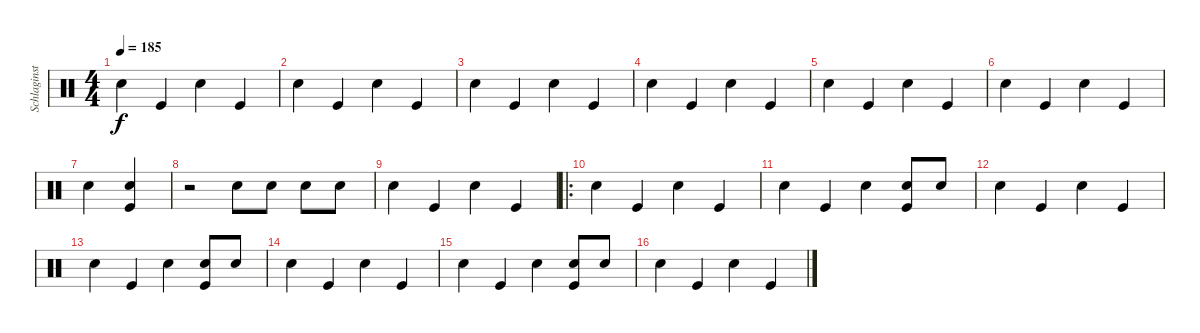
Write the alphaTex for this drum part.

\track ("Schlaginstrumente - Auswahl" "Schlaginst") {instrument percussion}
\staff {score}
\articulation defaults
\ts (4 4)
\tempo 185
\clef neutral
\ks c "Snare (hit) 2".4{dy f} "Kick (hit)".4 "Snare (hit) 2".4 "Kick (hit)".4
|
"Snare (hit) 2".4 "Kick (hit)".4 "Snare (hit) 2".4 "Kick (hit)".4 |
"Snare (hit) 2".4 "Kick (hit)".4 "Snare (hit) 2".4 "Kick (hit)".4 |
"Snare (hit) 2".4 "Kick (hit)".4 "Snare (hit) 2".4 "Kick (hit)".4 |
"Snare (hit) 2".4 "Kick (hit)".4 "Snare (hit) 2".4 "Kick (hit)".4 |
"Snare (hit) 2".4 "Kick (hit)".4 "Snare (hit) 2".4 "Kick (hit)".4 |
"Snare (hit) 2".4 ("Kick (hit)" "Snare (hit) 2").4 |
r.2 "Snare (hit) 2".8 "Snare (hit) 2".8 "Snare (hit) 2".8 "Snare (hit) 2".8 |
"Snare (hit) 2".4 "Kick (hit)".4 "Snare (hit) 2".4 "Kick (hit)".4 |
\ro "Snare (hit) 2".4 "Kick (hit)".4 "Snare (hit) 2".4 "Kick (hit)".4
|
"Snare (hit) 2".4 "Kick (hit)".4 "Snare (hit) 2".4 ("Kick (hit)" "Snare (hit) 2").8 "Snare (hit) 2".8 |
"Snare (hit) 2".4 "Kick (hit)".4 "Snare (hit) 2".4 "Kick (hit)".4 |
"Snare (hit) 2".4 "Kick (hit)".4 "Snare (hit) 2".4 ("Kick (hit)" "Snare (hit) 2").8 "Snare (hit) 2".8 |
"Snare (hit) 2".4 "Kick (hit)".4 "Snare (hit) 2".4 "Kick (hit)".4 |
"Snare (hit) 2".4 "Kick (hit)".4 "Snare (hit) 2".4 ("Kick (hit)" "Snare (hit) 2").8 "Snare (hit) 2".8 |
"Snare (hit) 2".4 "Kick (hit)".4 "Snare (hit) 2".4 "Kick (hit)".4
